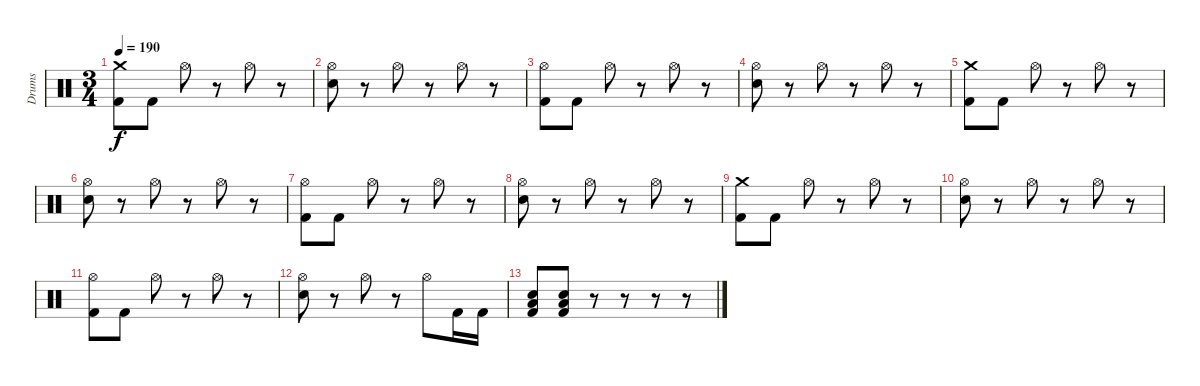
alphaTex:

\track ("Drums" "Drums") {instrument percussion}
\staff {score}
\articulation defaults
\ts (3 4)
\tempo 190
\clef neutral
\ks c
("Crash medium (hit)" "Kick (hit) 2").8{dy f} "Kick (hit) 2".8 "Hi-Hat (open)".8 r.8 "Hi-Hat (open)".8 r.8 |
("Hi-Hat (open)" "Snare (hit) 2").8 r.8 "Hi-Hat (open)".8 r.8 "Hi-Hat (open)".8 r.8 |
("Hi-Hat (open)" "Kick (hit) 2").8 "Kick (hit) 2".8 "Hi-Hat (open)".8 r.8 "Hi-Hat (open)".8 r.8 |
("Hi-Hat (open)" "Snare (hit) 2").8 r.8 "Hi-Hat (open)".8 r.8 "Hi-Hat (open)".8 r.8 |
("Crash medium (hit)" "Kick (hit) 2").8 "Kick (hit) 2".8 "Hi-Hat (open)".8 r.8 "Hi-Hat (open)".8 r.8 |
("Hi-Hat (open)" "Snare (hit) 2").8 r.8 "Hi-Hat (open)".8 r.8 "Hi-Hat (open)".8 r.8 |
("Hi-Hat (open)" "Kick (hit) 2").8 "Kick (hit) 2".8 "Hi-Hat (open)".8 r.8 "Hi-Hat (open)".8 r.8 |
("Hi-Hat (open)" "Snare (hit) 2").8 r.8 "Hi-Hat (open)".8 r.8 "Hi-Hat (open)".8 r.8 |
("Crash medium (hit)" "Kick (hit) 2").8 "Kick (hit) 2".8 "Hi-Hat (open)".8 r.8 "Hi-Hat (open)".8 r.8 |
("Hi-Hat (open)" "Snare (hit) 2").8 r.8 "Hi-Hat (open)".8 r.8 "Hi-Hat (open)".8 r.8 |
("Hi-Hat (open)" "Kick (hit) 2").8 "Kick (hit) 2".8 "Hi-Hat (open)".8 r.8 "Hi-Hat (open)".8 r.8 |
("Hi-Hat (open)" "Snare (hit) 2").8 r.8 "Hi-Hat (open)".8 r.8 "Hi-Hat (open)".8 "Kick (hit) 2".16 "Kick (hit) 2".16 |
("Snare (hit) 2" "Low Floor Tom (hit)" "Kick (hit) 2").8 ("Snare (hit) 2" "Low Floor Tom (hit)" "Kick (hit) 2").8 r.8 r.8 r.8 r.8
